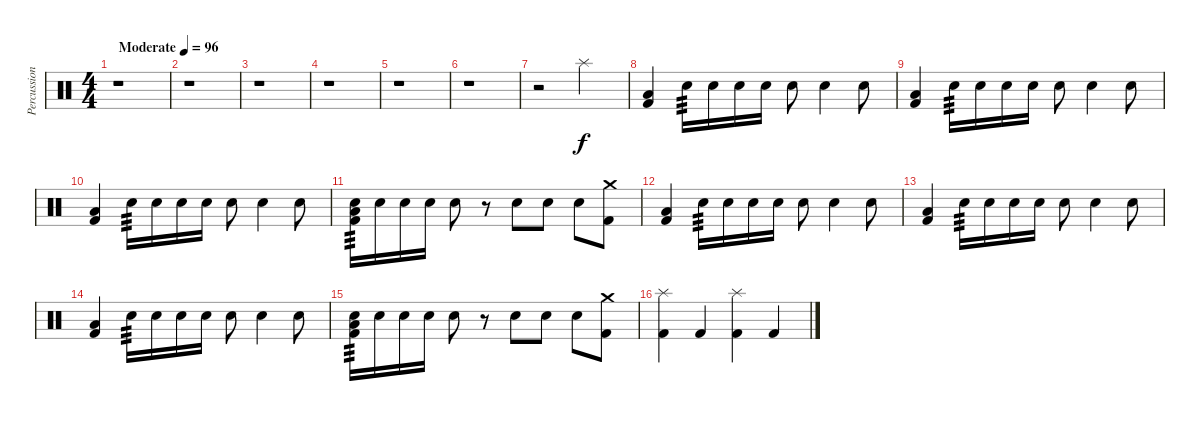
\track ("Percussion" "Percussion") {instrument percussion}
\staff {score}
\articulation defaults
\ts (4 4)
\tempo (96 "Moderate")
\clef neutral
\ks c
r.1{dy f} |
r.1 |
r.1 |
r.1 |
r.1 |
r.1 |
r.2 "Splash (hit)".2 |
("Low Floor Tom (hit)" "Kick (hit) 2").4 "Electric Snare (hit)".16{tp 3} "Electric Snare (hit)".16 "Electric Snare (hit)".16 "Electric Snare (hit)".16 "Electric Snare (hit)".8 "Electric Snare (hit)".4 "Electric Snare (hit)".8 |
("Low Floor Tom (hit)" "Kick (hit) 2").4 "Electric Snare (hit)".16{tp 3} "Electric Snare (hit)".16 "Electric Snare (hit)".16 "Electric Snare (hit)".16 "Electric Snare (hit)".8 "Electric Snare (hit)".4 "Electric Snare (hit)".8 |
("Low Floor Tom (hit)" "Kick (hit) 2").4 "Electric Snare (hit)".16{tp 3} "Electric Snare (hit)".16 "Electric Snare (hit)".16 "Electric Snare (hit)".16 "Electric Snare (hit)".8 "Electric Snare (hit)".4 "Electric Snare (hit)".8 |
("Electric Snare (hit)" "Low Floor Tom (hit)" "Kick (hit) 2").16{tp 3} "Electric Snare (hit)".16 "Electric Snare (hit)".16 "Electric Snare (hit)".16 "Electric Snare (hit)".8 r.8 "Electric Snare (hit)".8 "Electric Snare (hit)".8 "Electric Snare (hit)".8 ("Crash medium (hit)" "Kick (hit) 2").8 |
("Low Floor Tom (hit)" "Kick (hit) 2").4 "Electric Snare (hit)".16{tp 3} "Electric Snare (hit)".16 "Electric Snare (hit)".16 "Electric Snare (hit)".16 "Electric Snare (hit)".8 "Electric Snare (hit)".4 "Electric Snare (hit)".8 |
("Low Floor Tom (hit)" "Kick (hit) 2").4 "Electric Snare (hit)".16{tp 3} "Electric Snare (hit)".16 "Electric Snare (hit)".16 "Electric Snare (hit)".16 "Electric Snare (hit)".8 "Electric Snare (hit)".4 "Electric Snare (hit)".8 |
("Low Floor Tom (hit)" "Kick (hit) 2").4 "Electric Snare (hit)".16{tp 3} "Electric Snare (hit)".16 "Electric Snare (hit)".16 "Electric Snare (hit)".16 "Electric Snare (hit)".8 "Electric Snare (hit)".4 "Electric Snare (hit)".8 |
("Electric Snare (hit)" "Low Floor Tom (hit)" "Kick (hit) 2").16{tp 3} "Electric Snare (hit)".16 "Electric Snare (hit)".16 "Electric Snare (hit)".16 "Electric Snare (hit)".8 r.8 "Electric Snare (hit)".8 "Electric Snare (hit)".8 "Electric Snare (hit)".8 ("Crash medium (hit)" "Kick (hit) 2").8 |
("Splash (hit)" "Kick (hit) 2").4 "Kick (hit) 2".4 ("Splash (hit)" "Kick (hit) 2").4 "Kick (hit) 2".4
